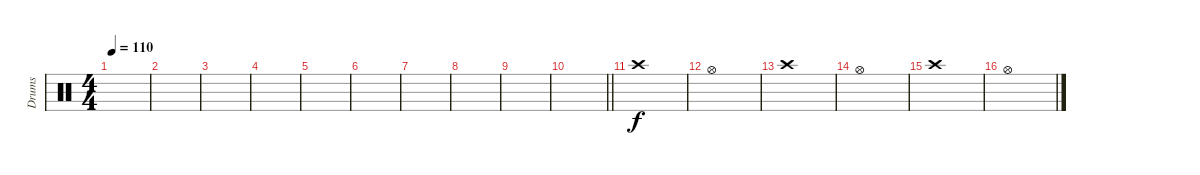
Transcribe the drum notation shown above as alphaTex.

\track ("Drums" "Drums") {instrument percussion}
\staff {score}
\articulation defaults
\ts (4 4)
\tempo 110
\clef neutral
\ks c
|
|
|
|
|
|
|
|
|
\barLineRight lightlight
|
\section ("" "")
"Crash high (hit)".1 |
"Hi-Hat (open)".1 |
"Crash high (hit)".1 |
"Hi-Hat (open)".1 |
"Crash high (hit)".1 |
"Hi-Hat (open)".1
